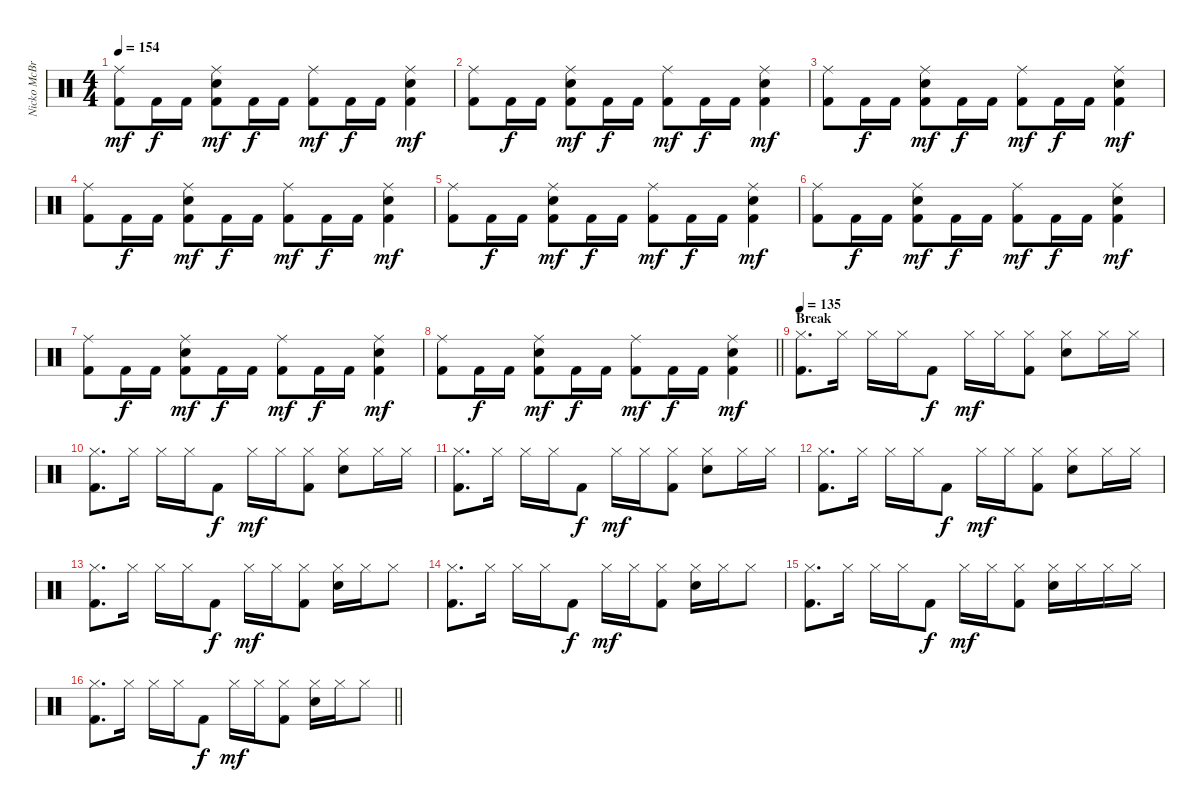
\track ("Nicko McBrain" "Nicko McBr") {instrument percussion}
\staff {score}
\articulation defaults
\ts (4 4)
\tempo 154
\clef neutral
\ks c
("Ride (middle)" "Kick (hit) 2").8{dy mf} "Kick (hit) 2".16{dy f} "Kick (hit) 2".16 ("Ride (middle)" "Kick (hit) 2" "Electric Snare (hit)").8{dy mf} "Kick (hit) 2".16{dy f} "Kick (hit) 2".16 ("Ride (middle)" "Kick (hit) 2").8{dy mf} "Kick (hit) 2".16{dy f} "Kick (hit) 2".16 ("Ride (middle)" "Kick (hit) 2" "Electric Snare (hit)").4{dy mf} |
("Ride (middle)" "Kick (hit) 2").8 "Kick (hit) 2".16{dy f} "Kick (hit) 2".16 ("Ride (middle)" "Kick (hit) 2" "Electric Snare (hit)").8{dy mf} "Kick (hit) 2".16{dy f} "Kick (hit) 2".16 ("Ride (middle)" "Kick (hit) 2").8{dy mf} "Kick (hit) 2".16{dy f} "Kick (hit) 2".16 ("Ride (middle)" "Kick (hit) 2" "Electric Snare (hit)").4{dy mf} |
("Ride (middle)" "Kick (hit) 2").8 "Kick (hit) 2".16{dy f} "Kick (hit) 2".16 ("Ride (middle)" "Kick (hit) 2" "Electric Snare (hit)").8{dy mf} "Kick (hit) 2".16{dy f} "Kick (hit) 2".16 ("Ride (middle)" "Kick (hit) 2").8{dy mf} "Kick (hit) 2".16{dy f} "Kick (hit) 2".16 ("Ride (middle)" "Kick (hit) 2" "Electric Snare (hit)").4{dy mf} |
("Ride (middle)" "Kick (hit) 2").8 "Kick (hit) 2".16{dy f} "Kick (hit) 2".16 ("Ride (middle)" "Kick (hit) 2" "Electric Snare (hit)").8{dy mf} "Kick (hit) 2".16{dy f} "Kick (hit) 2".16 ("Ride (middle)" "Kick (hit) 2").8{dy mf} "Kick (hit) 2".16{dy f} "Kick (hit) 2".16 ("Ride (middle)" "Kick (hit) 2" "Electric Snare (hit)").4{dy mf} |
("Ride (middle)" "Kick (hit) 2").8 "Kick (hit) 2".16{dy f} "Kick (hit) 2".16 ("Ride (middle)" "Kick (hit) 2" "Electric Snare (hit)").8{dy mf} "Kick (hit) 2".16{dy f} "Kick (hit) 2".16 ("Ride (middle)" "Kick (hit) 2").8{dy mf} "Kick (hit) 2".16{dy f} "Kick (hit) 2".16 ("Ride (middle)" "Kick (hit) 2" "Electric Snare (hit)").4{dy mf} |
("Ride (middle)" "Kick (hit) 2").8 "Kick (hit) 2".16{dy f} "Kick (hit) 2".16 ("Ride (middle)" "Kick (hit) 2" "Electric Snare (hit)").8{dy mf} "Kick (hit) 2".16{dy f} "Kick (hit) 2".16 ("Ride (middle)" "Kick (hit) 2").8{dy mf} "Kick (hit) 2".16{dy f} "Kick (hit) 2".16 ("Ride (middle)" "Kick (hit) 2" "Electric Snare (hit)").4{dy mf} |
("Ride (middle)" "Kick (hit) 2").8 "Kick (hit) 2".16{dy f} "Kick (hit) 2".16 ("Ride (middle)" "Kick (hit) 2" "Electric Snare (hit)").8{dy mf} "Kick (hit) 2".16{dy f} "Kick (hit) 2".16 ("Ride (middle)" "Kick (hit) 2").8{dy mf} "Kick (hit) 2".16{dy f} "Kick (hit) 2".16 ("Ride (middle)" "Kick (hit) 2" "Electric Snare (hit)").4{dy mf} |
\barLineRight lightlight
("Ride (middle)" "Kick (hit) 2").8 "Kick (hit) 2".16{dy f} "Kick (hit) 2".16 ("Ride (middle)" "Kick (hit) 2" "Electric Snare (hit)").8{dy mf} "Kick (hit) 2".16{dy f} "Kick (hit) 2".16 ("Ride (middle)" "Kick (hit) 2").8{dy mf} "Kick (hit) 2".16{dy f} "Kick (hit) 2".16 ("Ride (middle)" "Kick (hit) 2" "Electric Snare (hit)").4{dy mf} |
\section ("" "Break")
\tempo 135
("Hi-Hat (closed)" "Kick (hit) 2").8{d} "Hi-Hat (closed)".16 "Hi-Hat (closed)".16 "Hi-Hat (closed)".16 "Kick (hit) 2".8{dy f} "Hi-Hat (closed)".16{dy mf} "Hi-Hat (closed)".16 ("Hi-Hat (closed)" "Kick (hit) 2").8 ("Hi-Hat (closed)" "Electric Snare (hit)").8 "Hi-Hat (closed)".16 "Hi-Hat (closed)".16 |
("Hi-Hat (closed)" "Kick (hit) 2").8{d} "Hi-Hat (closed)".16 "Hi-Hat (closed)".16 "Hi-Hat (closed)".16 "Kick (hit) 2".8{dy f} "Hi-Hat (closed)".16{dy mf} "Hi-Hat (closed)".16 ("Hi-Hat (closed)" "Kick (hit) 2").8 ("Hi-Hat (closed)" "Electric Snare (hit)").8 "Hi-Hat (closed)".16 "Hi-Hat (closed)".16 |
("Hi-Hat (closed)" "Kick (hit) 2").8{d} "Hi-Hat (closed)".16 "Hi-Hat (closed)".16 "Hi-Hat (closed)".16 "Kick (hit) 2".8{dy f} "Hi-Hat (closed)".16{dy mf} "Hi-Hat (closed)".16 ("Hi-Hat (closed)" "Kick (hit) 2").8 ("Hi-Hat (closed)" "Electric Snare (hit)").8 "Hi-Hat (closed)".16 "Hi-Hat (closed)".16 |
("Hi-Hat (closed)" "Kick (hit) 2").8{d} "Hi-Hat (closed)".16 "Hi-Hat (closed)".16 "Hi-Hat (closed)".16 "Kick (hit) 2".8{dy f} "Hi-Hat (closed)".16{dy mf} "Hi-Hat (closed)".16 ("Hi-Hat (closed)" "Kick (hit) 2").8 ("Hi-Hat (closed)" "Electric Snare (hit)").8 "Hi-Hat (closed)".16 "Hi-Hat (closed)".16 |
("Hi-Hat (closed)" "Kick (hit) 2").8{d} "Hi-Hat (closed)".16 "Hi-Hat (closed)".16 "Hi-Hat (closed)".16 "Kick (hit) 2".8{dy f} "Hi-Hat (closed)".16{dy mf} "Hi-Hat (closed)".16 ("Hi-Hat (closed)" "Kick (hit) 2").8 ("Hi-Hat (closed)" "Electric Snare (hit)").16 "Hi-Hat (closed)".16 "Hi-Hat (closed)".8 |
("Hi-Hat (closed)" "Kick (hit) 2").8{d} "Hi-Hat (closed)".16 "Hi-Hat (closed)".16 "Hi-Hat (closed)".16 "Kick (hit) 2".8{dy f} "Hi-Hat (closed)".16{dy mf} "Hi-Hat (closed)".16 ("Hi-Hat (closed)" "Kick (hit) 2").8 ("Hi-Hat (closed)" "Electric Snare (hit)").16 "Hi-Hat (closed)".16 "Hi-Hat (closed)".8 |
("Hi-Hat (closed)" "Kick (hit) 2").8{d} "Hi-Hat (closed)".16 "Hi-Hat (closed)".16 "Hi-Hat (closed)".16 "Kick (hit) 2".8{dy f} "Hi-Hat (closed)".16{dy mf} "Hi-Hat (closed)".16 ("Hi-Hat (closed)" "Kick (hit) 2").8 ("Hi-Hat (closed)" "Electric Snare (hit)").16 "Hi-Hat (closed)".16 "Hi-Hat (closed)".16 "Hi-Hat (closed)".16 |
\barLineRight lightlight
("Hi-Hat (closed)" "Kick (hit) 2").8{d} "Hi-Hat (closed)".16 "Hi-Hat (closed)".16 "Hi-Hat (closed)".16 "Kick (hit) 2".8{dy f} "Hi-Hat (closed)".16{dy mf} "Hi-Hat (closed)".16 ("Hi-Hat (closed)" "Kick (hit) 2").8 ("Hi-Hat (closed)" "Electric Snare (hit)").16 "Hi-Hat (closed)".16 "Hi-Hat (closed)".8
